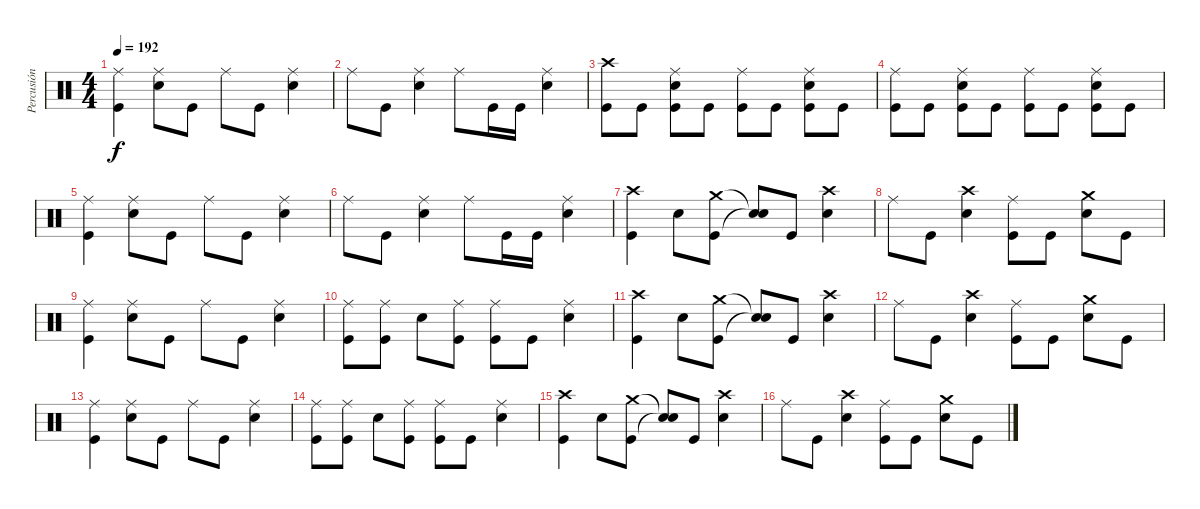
\track ("Percusión" "Percusión") {instrument percussion}
\staff {score}
\articulation defaults
\ts (4 4)
\tempo 192
\clef neutral
\ks c
("Ride (middle)" "Kick (hit)").4{dy f} ("Ride (middle)" "Electric Snare (hit)").8 "Kick (hit)".8 "Ride (middle)".8 "Kick (hit)".8 ("Ride (middle)" "Electric Snare (hit)").4 |
"Ride (middle)".8 "Kick (hit)".8 ("Ride (middle)" "Electric Snare (hit)").4 "Ride (middle)".8 "Kick (hit)".16 "Kick (hit)".16 ("Ride (middle)" "Electric Snare (hit)").4 |
("Crash high (hit)" "Kick (hit)").8 "Kick (hit)".8 ("Ride (middle)" "Electric Snare (hit)" "Kick (hit)").8 "Kick (hit)".8 ("Ride (middle)" "Kick (hit)").8 "Kick (hit)".8 ("Ride (middle)" "Electric Snare (hit)" "Kick (hit)").8 "Kick (hit)".8 |
("Ride (middle)" "Kick (hit)").8 "Kick (hit)".8 ("Ride (middle)" "Electric Snare (hit)" "Kick (hit)").8 "Kick (hit)".8 ("Ride (middle)" "Kick (hit)").8 "Kick (hit)".8 ("Ride (middle)" "Electric Snare (hit)" "Kick (hit)").8 "Kick (hit)".8 |
("Ride (middle)" "Kick (hit)").4 ("Ride (middle)" "Electric Snare (hit)").8 "Kick (hit)".8 "Ride (middle)".8 "Kick (hit)".8 ("Ride (middle)" "Electric Snare (hit)").4 |
"Ride (middle)".8 "Kick (hit)".8 ("Ride (middle)" "Electric Snare (hit)").4 "Ride (middle)".8 "Kick (hit)".16 "Kick (hit)".16 ("Ride (middle)" "Electric Snare (hit)").4 |
("Crash high (hit)" "Kick (hit)").4 "Electric Snare (hit)".8 ("Crash medium (hit)" "Kick (hit)").8 ("Snare (hit)"{t} "Snare (hit)"{t}).8 "Kick (hit)".8 ("Crash high (hit)" "Electric Snare (hit)").4 |
"Ride (middle)".8 "Kick (hit)".8 ("Crash high (hit)" "Electric Snare (hit)").4 ("Ride (middle)" "Kick (hit)").8 "Kick (hit)".8 ("Crash medium (hit)" "Electric Snare (hit)").8 "Kick (hit)".8 |
("Ride (middle)" "Kick (hit)").4 ("Ride (middle)" "Electric Snare (hit)").8 "Kick (hit)".8 "Ride (middle)".8 "Kick (hit)".8 ("Ride (middle)" "Electric Snare (hit)").4 |
("Ride (middle)" "Kick (hit)").8 ("Ride (middle)" "Kick (hit)").8 "Electric Snare (hit)".8 ("Ride (middle)" "Kick (hit)").8 ("Ride (middle)" "Kick (hit)").8 "Kick (hit)".8 ("Ride (middle)" "Electric Snare (hit)").4 |
("Crash high (hit)" "Kick (hit)").4 "Electric Snare (hit)".8 ("Crash medium (hit)" "Kick (hit)").8 ("Snare (hit)"{t} "Snare (hit)"{t}).8 "Kick (hit)".8 ("Crash high (hit)" "Electric Snare (hit)").4 |
"Ride (middle)".8 "Kick (hit)".8 ("Crash high (hit)" "Electric Snare (hit)").4 ("Ride (middle)" "Kick (hit)").8 "Kick (hit)".8 ("Crash medium (hit)" "Electric Snare (hit)").8 "Kick (hit)".8 |
("Ride (middle)" "Kick (hit)").4 ("Ride (middle)" "Electric Snare (hit)").8 "Kick (hit)".8 "Ride (middle)".8 "Kick (hit)".8 ("Ride (middle)" "Electric Snare (hit)").4 |
("Ride (middle)" "Kick (hit)").8 ("Ride (middle)" "Kick (hit)").8 "Electric Snare (hit)".8 ("Ride (middle)" "Kick (hit)").8 ("Ride (middle)" "Kick (hit)").8 "Kick (hit)".8 ("Ride (middle)" "Electric Snare (hit)").4 |
("Crash high (hit)" "Kick (hit)").4 "Electric Snare (hit)".8 ("Crash medium (hit)" "Kick (hit)").8 ("Snare (hit)"{t} "Snare (hit)"{t}).8 "Kick (hit)".8 ("Crash high (hit)" "Electric Snare (hit)").4 |
"Ride (middle)".8 "Kick (hit)".8 ("Crash high (hit)" "Electric Snare (hit)").4 ("Ride (middle)" "Kick (hit)").8 "Kick (hit)".8 ("Crash medium (hit)" "Electric Snare (hit)").8 "Kick (hit)".8
